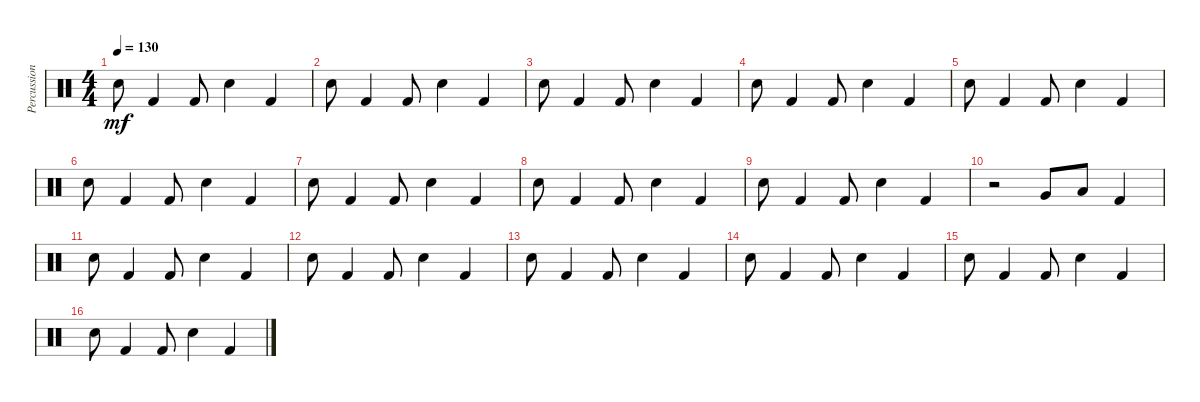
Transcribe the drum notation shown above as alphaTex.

\track ("Percussion" "Percussion") {instrument percussion}
\staff {score}
\articulation defaults
\ts (4 4)
\tempo 130
\clef neutral
\ks c "Electric Snare (hit)".8{dy mf} "Kick (hit) 2".4 "Kick (hit) 2".8 "Electric Snare (hit)".4 "Kick (hit) 2".4
|
"Electric Snare (hit)".8 "Kick (hit) 2".4 "Kick (hit) 2".8 "Electric Snare (hit)".4 "Kick (hit) 2".4 |
"Electric Snare (hit)".8 "Kick (hit) 2".4 "Kick (hit) 2".8 "Electric Snare (hit)".4 "Kick (hit) 2".4 |
"Electric Snare (hit)".8 "Kick (hit) 2".4 "Kick (hit) 2".8 "Electric Snare (hit)".4 "Kick (hit) 2".4 |
"Electric Snare (hit)".8 "Kick (hit) 2".4 "Kick (hit) 2".8 "Electric Snare (hit)".4 "Kick (hit) 2".4 |
"Electric Snare (hit)".8 "Kick (hit) 2".4 "Kick (hit) 2".8 "Electric Snare (hit)".4 "Kick (hit) 2".4 |
"Electric Snare (hit)".8 "Kick (hit) 2".4 "Kick (hit) 2".8 "Electric Snare (hit)".4 "Kick (hit) 2".4 |
"Electric Snare (hit)".8 "Kick (hit) 2".4 "Kick (hit) 2".8 "Electric Snare (hit)".4 "Kick (hit) 2".4 |
"Electric Snare (hit)".8 "Kick (hit) 2".4 "Kick (hit) 2".8 "Electric Snare (hit)".4 "Kick (hit) 2".4 |
r.2 "Very Low Tom (hit)".8 "Low Tom (hit)".8 "Kick (hit) 2".4 |
"Electric Snare (hit)".8 "Kick (hit) 2".4 "Kick (hit) 2".8 "Electric Snare (hit)".4 "Kick (hit) 2".4 |
"Electric Snare (hit)".8 "Kick (hit) 2".4 "Kick (hit) 2".8 "Electric Snare (hit)".4 "Kick (hit) 2".4 |
"Electric Snare (hit)".8 "Kick (hit) 2".4 "Kick (hit) 2".8 "Electric Snare (hit)".4 "Kick (hit) 2".4 |
"Electric Snare (hit)".8 "Kick (hit) 2".4 "Kick (hit) 2".8 "Electric Snare (hit)".4 "Kick (hit) 2".4 |
"Electric Snare (hit)".8 "Kick (hit) 2".4 "Kick (hit) 2".8 "Electric Snare (hit)".4 "Kick (hit) 2".4 |
"Electric Snare (hit)".8 "Kick (hit) 2".4 "Kick (hit) 2".8 "Electric Snare (hit)".4 "Kick (hit) 2".4
